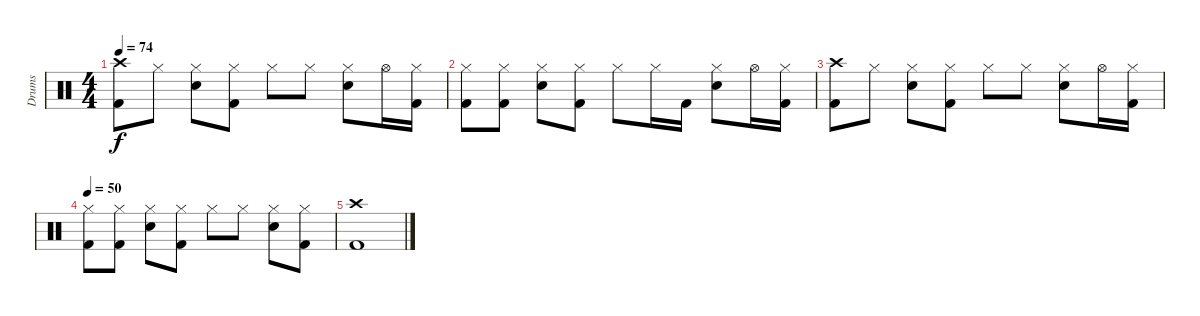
\track ("Drums" "Drums") {instrument percussion}
\staff {score}
\articulation defaults
\ts (4 4)
\tempo 74
\clef neutral
\ks c
("Crash high (hit)" "Kick (hit) 2").8{dy f} "Hi-Hat (closed)".8 ("Hi-Hat (closed)" "Electric Snare (hit)").8 ("Hi-Hat (closed)" "Kick (hit) 2").8 "Hi-Hat (closed)".8 "Hi-Hat (closed)".8 ("Hi-Hat (closed)" "Electric Snare (hit)").8 "Hi-Hat (open)".16 ("Hi-Hat (closed)" "Kick (hit) 2").16 |
("Hi-Hat (closed)" "Kick (hit) 2").8 ("Hi-Hat (closed)" "Kick (hit) 2").8 ("Hi-Hat (closed)" "Electric Snare (hit)").8 ("Hi-Hat (closed)" "Kick (hit) 2").8 "Hi-Hat (closed)".8 "Hi-Hat (closed)".16 "Kick (hit) 2".16 ("Hi-Hat (closed)" "Electric Snare (hit)").8 "Hi-Hat (open)".16 ("Hi-Hat (closed)" "Kick (hit) 2").16 |
("Crash high (hit)" "Kick (hit) 2").8 "Hi-Hat (closed)".8 ("Hi-Hat (closed)" "Electric Snare (hit)").8 ("Hi-Hat (closed)" "Kick (hit) 2").8 "Hi-Hat (closed)".8 "Hi-Hat (closed)".8 ("Hi-Hat (closed)" "Electric Snare (hit)").8 "Hi-Hat (open)".16 ("Hi-Hat (closed)" "Kick (hit) 2").16 |
\tempo 50
("Hi-Hat (closed)" "Kick (hit) 2").8 ("Hi-Hat (closed)" "Kick (hit) 2").8 ("Hi-Hat (closed)" "Electric Snare (hit)").8 ("Hi-Hat (closed)" "Kick (hit) 2").8 "Hi-Hat (closed)".8 "Hi-Hat (closed)".8 ("Hi-Hat (closed)" "Electric Snare (hit)").8 ("Hi-Hat (closed)" "Kick (hit) 2").8 |
("Crash high (hit)" "Kick (hit) 2").1
